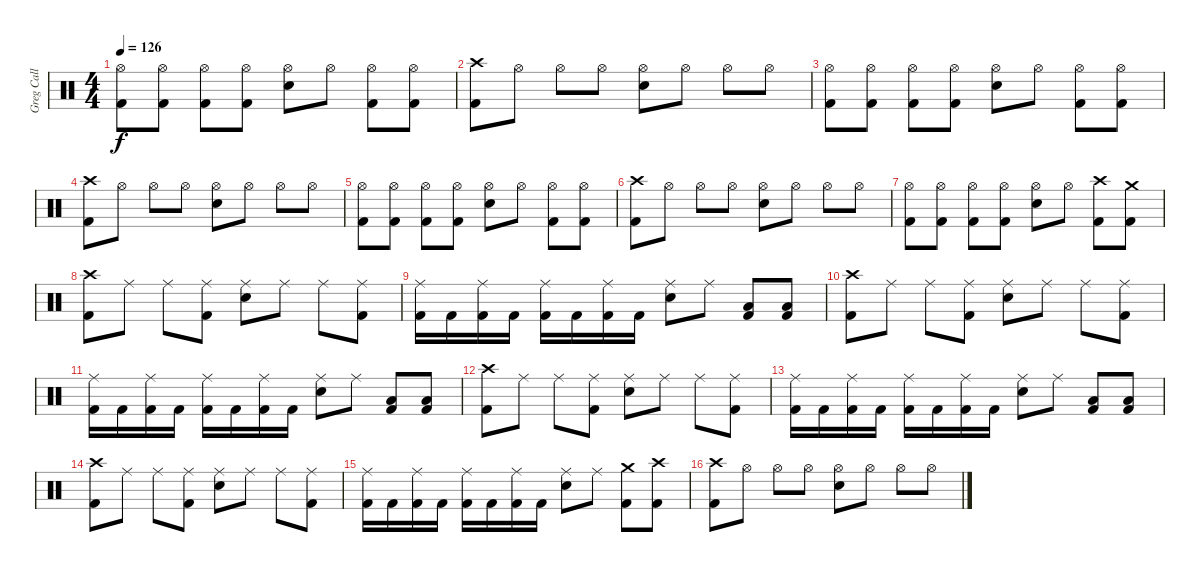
\track ("Greg Call (Drums)" "Greg Call ") {instrument percussion}
\staff {score}
\articulation defaults
\ts (4 4)
\tempo 126
\clef neutral
\ks c
("Hi-Hat (open)" "Kick (hit) 2").8{dy f} ("Hi-Hat (open)" "Kick (hit) 2").8 ("Hi-Hat (open)" "Kick (hit) 2").8 ("Hi-Hat (open)" "Kick (hit) 2").8 ("Hi-Hat (open)" "Snare (hit) 2").8 "Hi-Hat (open)".8 ("Hi-Hat (open)" "Kick (hit) 2").8 ("Hi-Hat (open)" "Kick (hit) 2").8 |
("Crash high (hit)" "Kick (hit) 2").8 "Hi-Hat (open)".8 "Hi-Hat (open)".8 "Hi-Hat (open)".8 ("Hi-Hat (open)" "Snare (hit) 2").8 "Hi-Hat (open)".8 "Hi-Hat (open)".8 "Hi-Hat (open)".8 |
("Hi-Hat (open)" "Kick (hit) 2").8 ("Hi-Hat (open)" "Kick (hit) 2").8 ("Hi-Hat (open)" "Kick (hit) 2").8 ("Hi-Hat (open)" "Kick (hit) 2").8 ("Hi-Hat (open)" "Snare (hit) 2").8 "Hi-Hat (open)".8 ("Hi-Hat (open)" "Kick (hit) 2").8 ("Hi-Hat (open)" "Kick (hit) 2").8 |
("Crash high (hit)" "Kick (hit) 2").8 "Hi-Hat (open)".8 "Hi-Hat (open)".8 "Hi-Hat (open)".8 ("Hi-Hat (open)" "Snare (hit) 2").8 "Hi-Hat (open)".8 "Hi-Hat (open)".8 "Hi-Hat (open)".8 |
("Hi-Hat (open)" "Kick (hit) 2").8 ("Hi-Hat (open)" "Kick (hit) 2").8 ("Hi-Hat (open)" "Kick (hit) 2").8 ("Hi-Hat (open)" "Kick (hit) 2").8 ("Hi-Hat (open)" "Snare (hit) 2").8 "Hi-Hat (open)".8 ("Hi-Hat (open)" "Kick (hit) 2").8 ("Hi-Hat (open)" "Kick (hit) 2").8 |
("Crash high (hit)" "Kick (hit) 2").8 "Hi-Hat (open)".8 "Hi-Hat (open)".8 "Hi-Hat (open)".8 ("Hi-Hat (open)" "Snare (hit) 2").8 "Hi-Hat (open)".8 "Hi-Hat (open)".8 "Hi-Hat (open)".8 |
("Hi-Hat (open)" "Kick (hit) 2").8 ("Hi-Hat (open)" "Kick (hit) 2").8 ("Hi-Hat (open)" "Kick (hit) 2").8 ("Hi-Hat (open)" "Kick (hit) 2").8 ("Hi-Hat (open)" "Snare (hit) 2").8 "Hi-Hat (open)".8 ("Crash high (hit)" "Kick (hit) 2").8 ("Crash medium (hit)" "Kick (hit) 2").8 |
("Crash high (hit)" "Kick (hit) 2").8 "Ride (middle)".8 "Ride (middle)".8 ("Ride (middle)" "Kick (hit) 2").8 ("Ride (middle)" "Snare (hit) 2").8 "Ride (middle)".8 "Ride (middle)".8 ("Ride (middle)" "Kick (hit) 2").8 |
("Ride (middle)" "Kick (hit) 2").16 "Kick (hit) 2".16 ("Ride (middle)" "Kick (hit) 2").16 "Kick (hit) 2".16 ("Ride (middle)" "Kick (hit) 2").16 "Kick (hit) 2".16 ("Ride (middle)" "Kick (hit) 2").16 "Kick (hit) 2".16 ("Ride (middle)" "Snare (hit) 2").8 "Ride (middle)".8 ("Low Floor Tom (hit)" "Kick (hit) 2").8 ("Low Floor Tom (hit)" "Kick (hit) 2").8 |
("Crash high (hit)" "Kick (hit) 2").8 "Ride (middle)".8 "Ride (middle)".8 ("Ride (middle)" "Kick (hit) 2").8 ("Ride (middle)" "Snare (hit) 2").8 "Ride (middle)".8 "Ride (middle)".8 ("Ride (middle)" "Kick (hit) 2").8 |
("Ride (middle)" "Kick (hit) 2").16 "Kick (hit) 2".16 ("Ride (middle)" "Kick (hit) 2").16 "Kick (hit) 2".16 ("Ride (middle)" "Kick (hit) 2").16 "Kick (hit) 2".16 ("Ride (middle)" "Kick (hit) 2").16 "Kick (hit) 2".16 ("Ride (middle)" "Snare (hit) 2").8 "Ride (middle)".8 ("Low Floor Tom (hit)" "Kick (hit) 2").8 ("Low Floor Tom (hit)" "Kick (hit) 2").8 |
("Crash high (hit)" "Kick (hit) 2").8 "Ride (middle)".8 "Ride (middle)".8 ("Ride (middle)" "Kick (hit) 2").8 ("Ride (middle)" "Snare (hit) 2").8 "Ride (middle)".8 "Ride (middle)".8 ("Ride (middle)" "Kick (hit) 2").8 |
("Ride (middle)" "Kick (hit) 2").16 "Kick (hit) 2".16 ("Ride (middle)" "Kick (hit) 2").16 "Kick (hit) 2".16 ("Ride (middle)" "Kick (hit) 2").16 "Kick (hit) 2".16 ("Ride (middle)" "Kick (hit) 2").16 "Kick (hit) 2".16 ("Ride (middle)" "Snare (hit) 2").8 "Ride (middle)".8 ("Low Floor Tom (hit)" "Kick (hit) 2").8 ("Low Floor Tom (hit)" "Kick (hit) 2").8 |
("Crash high (hit)" "Kick (hit) 2").8 "Ride (middle)".8 "Ride (middle)".8 ("Ride (middle)" "Kick (hit) 2").8 ("Ride (middle)" "Snare (hit) 2").8 "Ride (middle)".8 "Ride (middle)".8 ("Ride (middle)" "Kick (hit) 2").8 |
("Ride (middle)" "Kick (hit) 2").16 "Kick (hit) 2".16 ("Ride (middle)" "Kick (hit) 2").16 "Kick (hit) 2".16 ("Ride (middle)" "Kick (hit) 2").16 "Kick (hit) 2".16 ("Ride (middle)" "Kick (hit) 2").16 "Kick (hit) 2".16 ("Ride (middle)" "Snare (hit) 2").8 "Ride (middle)".8 ("Crash medium (hit)" "Kick (hit) 2").8 ("Crash high (hit)" "Kick (hit) 2").8 |
("Crash high (hit)" "Kick (hit) 2").8 "Hi-Hat (open)".8 "Hi-Hat (open)".8 "Hi-Hat (open)".8 ("Hi-Hat (open)" "Snare (hit) 2").8 "Hi-Hat (open)".8 "Hi-Hat (open)".8 "Hi-Hat (open)".8
